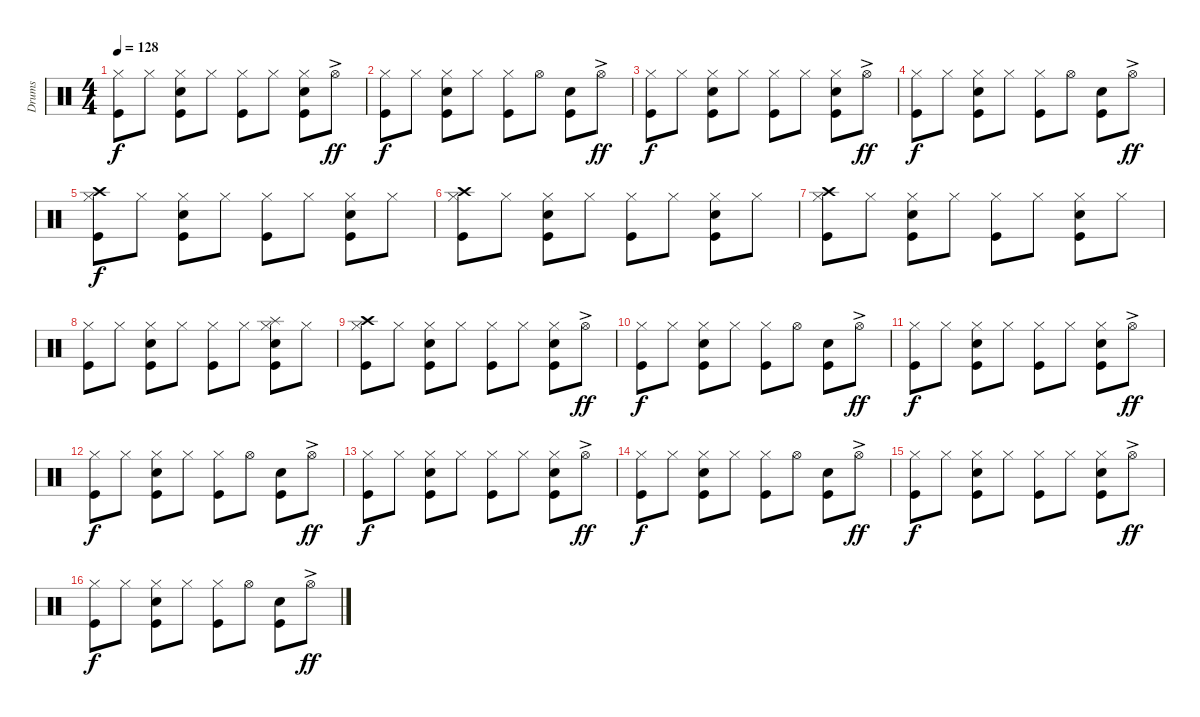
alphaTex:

\track ("Drums" "Drums") {instrument percussion}
\staff {score}
\articulation defaults
\ts (4 4)
\tempo 128
\clef neutral
\ks c
("Hi-Hat (closed)" "Kick (hit)").8{dy f} "Hi-Hat (closed)".8 ("Hi-Hat (closed)" "Electric Snare (hit)" "Kick (hit)").8 "Hi-Hat (closed)".8 ("Hi-Hat (closed)" "Kick (hit)").8 "Hi-Hat (closed)".8 ("Hi-Hat (closed)" "Electric Snare (hit)" "Kick (hit)").8 "Hi-Hat (open)"{ac}.8{dy ff} |
("Hi-Hat (closed)" "Kick (hit)").8{dy f} "Hi-Hat (closed)".8 ("Hi-Hat (closed)" "Electric Snare (hit)" "Kick (hit)").8 "Hi-Hat (closed)".8 ("Hi-Hat (closed)" "Kick (hit)").8 "Hi-Hat (open)".8 ("Electric Snare (hit)" "Kick (hit)").8 "Hi-Hat (open)"{ac}.8{dy ff} |
("Hi-Hat (closed)" "Kick (hit)").8{dy f} "Hi-Hat (closed)".8 ("Hi-Hat (closed)" "Electric Snare (hit)" "Kick (hit)").8 "Hi-Hat (closed)".8 ("Hi-Hat (closed)" "Kick (hit)").8 "Hi-Hat (closed)".8 ("Hi-Hat (closed)" "Electric Snare (hit)" "Kick (hit)").8 "Hi-Hat (open)"{ac}.8{dy ff} |
("Hi-Hat (closed)" "Kick (hit)").8{dy f} "Hi-Hat (closed)".8 ("Hi-Hat (closed)" "Electric Snare (hit)" "Kick (hit)").8 "Hi-Hat (closed)".8 ("Hi-Hat (closed)" "Kick (hit)").8 "Hi-Hat (open)".8 ("Electric Snare (hit)" "Kick (hit)").8 "Hi-Hat (open)"{ac}.8{dy ff} |
("Crash high (hit)" "Hi-Hat (closed)" "Kick (hit)").8{dy f} "Hi-Hat (closed)".8 ("Hi-Hat (closed)" "Electric Snare (hit)" "Kick (hit)").8 "Hi-Hat (closed)".8 ("Hi-Hat (closed)" "Kick (hit)").8 "Hi-Hat (closed)".8 ("Hi-Hat (closed)" "Electric Snare (hit)" "Kick (hit)").8 "Hi-Hat (closed)".8 |
("Crash high (hit)" "Hi-Hat (closed)" "Kick (hit)").8 "Hi-Hat (closed)".8 ("Hi-Hat (closed)" "Electric Snare (hit)" "Kick (hit)").8 "Hi-Hat (closed)".8 ("Hi-Hat (closed)" "Kick (hit)").8 "Hi-Hat (closed)".8 ("Hi-Hat (closed)" "Electric Snare (hit)" "Kick (hit)").8 "Hi-Hat (closed)".8 |
("Crash high (hit)" "Hi-Hat (closed)" "Kick (hit)").8 "Hi-Hat (closed)".8 ("Hi-Hat (closed)" "Electric Snare (hit)" "Kick (hit)").8 "Hi-Hat (closed)".8 ("Hi-Hat (closed)" "Kick (hit)").8 "Hi-Hat (closed)".8 ("Hi-Hat (closed)" "Electric Snare (hit)" "Kick (hit)").8 "Hi-Hat (closed)".8 |
("Hi-Hat (closed)" "Kick (hit)").8 "Hi-Hat (closed)".8 ("Hi-Hat (closed)" "Electric Snare (hit)" "Kick (hit)").8 "Hi-Hat (closed)".8 ("Hi-Hat (closed)" "Kick (hit)").8 "Hi-Hat (closed)".8 ("Splash (hit)" "Hi-Hat (closed)" "Electric Snare (hit)" "Kick (hit)").8 "Hi-Hat (closed)".8 |
("Crash high (hit)" "Hi-Hat (closed)" "Kick (hit)").8 "Hi-Hat (closed)".8 ("Hi-Hat (closed)" "Electric Snare (hit)" "Kick (hit)").8 "Hi-Hat (closed)".8 ("Hi-Hat (closed)" "Kick (hit)").8 "Hi-Hat (closed)".8 ("Hi-Hat (closed)" "Electric Snare (hit)" "Kick (hit)").8 "Hi-Hat (open)"{ac}.8{dy ff} |
("Hi-Hat (closed)" "Kick (hit)").8{dy f} "Hi-Hat (closed)".8 ("Hi-Hat (closed)" "Electric Snare (hit)" "Kick (hit)").8 "Hi-Hat (closed)".8 ("Hi-Hat (closed)" "Kick (hit)").8 "Hi-Hat (open)".8 ("Electric Snare (hit)" "Kick (hit)").8 "Hi-Hat (open)"{ac}.8{dy ff} |
("Hi-Hat (closed)" "Kick (hit)").8{dy f} "Hi-Hat (closed)".8 ("Hi-Hat (closed)" "Electric Snare (hit)" "Kick (hit)").8 "Hi-Hat (closed)".8 ("Hi-Hat (closed)" "Kick (hit)").8 "Hi-Hat (closed)".8 ("Hi-Hat (closed)" "Electric Snare (hit)" "Kick (hit)").8 "Hi-Hat (open)"{ac}.8{dy ff} |
("Hi-Hat (closed)" "Kick (hit)").8{dy f} "Hi-Hat (closed)".8 ("Hi-Hat (closed)" "Electric Snare (hit)" "Kick (hit)").8 "Hi-Hat (closed)".8 ("Hi-Hat (closed)" "Kick (hit)").8 "Hi-Hat (open)".8 ("Electric Snare (hit)" "Kick (hit)").8 "Hi-Hat (open)"{ac}.8{dy ff} |
("Hi-Hat (closed)" "Kick (hit)").8{dy f} "Hi-Hat (closed)".8 ("Hi-Hat (closed)" "Electric Snare (hit)" "Kick (hit)").8 "Hi-Hat (closed)".8 ("Hi-Hat (closed)" "Kick (hit)").8 "Hi-Hat (closed)".8 ("Hi-Hat (closed)" "Electric Snare (hit)" "Kick (hit)").8 "Hi-Hat (open)"{ac}.8{dy ff} |
("Hi-Hat (closed)" "Kick (hit)").8{dy f} "Hi-Hat (closed)".8 ("Hi-Hat (closed)" "Electric Snare (hit)" "Kick (hit)").8 "Hi-Hat (closed)".8 ("Hi-Hat (closed)" "Kick (hit)").8 "Hi-Hat (open)".8 ("Electric Snare (hit)" "Kick (hit)").8 "Hi-Hat (open)"{ac}.8{dy ff} |
("Hi-Hat (closed)" "Kick (hit)").8{dy f} "Hi-Hat (closed)".8 ("Hi-Hat (closed)" "Electric Snare (hit)" "Kick (hit)").8 "Hi-Hat (closed)".8 ("Hi-Hat (closed)" "Kick (hit)").8 "Hi-Hat (closed)".8 ("Hi-Hat (closed)" "Electric Snare (hit)" "Kick (hit)").8 "Hi-Hat (open)"{ac}.8{dy ff} |
("Hi-Hat (closed)" "Kick (hit)").8{dy f} "Hi-Hat (closed)".8 ("Hi-Hat (closed)" "Electric Snare (hit)" "Kick (hit)").8 "Hi-Hat (closed)".8 ("Hi-Hat (closed)" "Kick (hit)").8 "Hi-Hat (open)".8 ("Electric Snare (hit)" "Kick (hit)").8 "Hi-Hat (open)"{ac}.8{dy ff}
